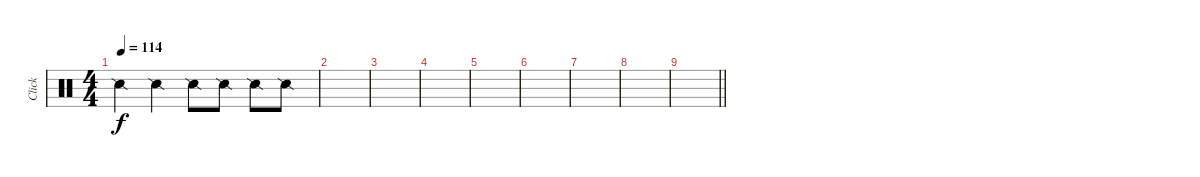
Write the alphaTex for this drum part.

\track ("Click" "Click") {instrument percussion}
\staff {score}
\articulation defaults
\ts (4 4)
\tempo 114
\clef neutral
\ks c "Snare (side stick) 2".4{dy f} "Snare (side stick) 2".4 "Snare (side stick) 2".8 "Snare (side stick) 2".8 "Snare (side stick) 2".8 "Snare (side stick) 2".8
|
|
|
|
|
|
|
|
\barLineRight lightlight
